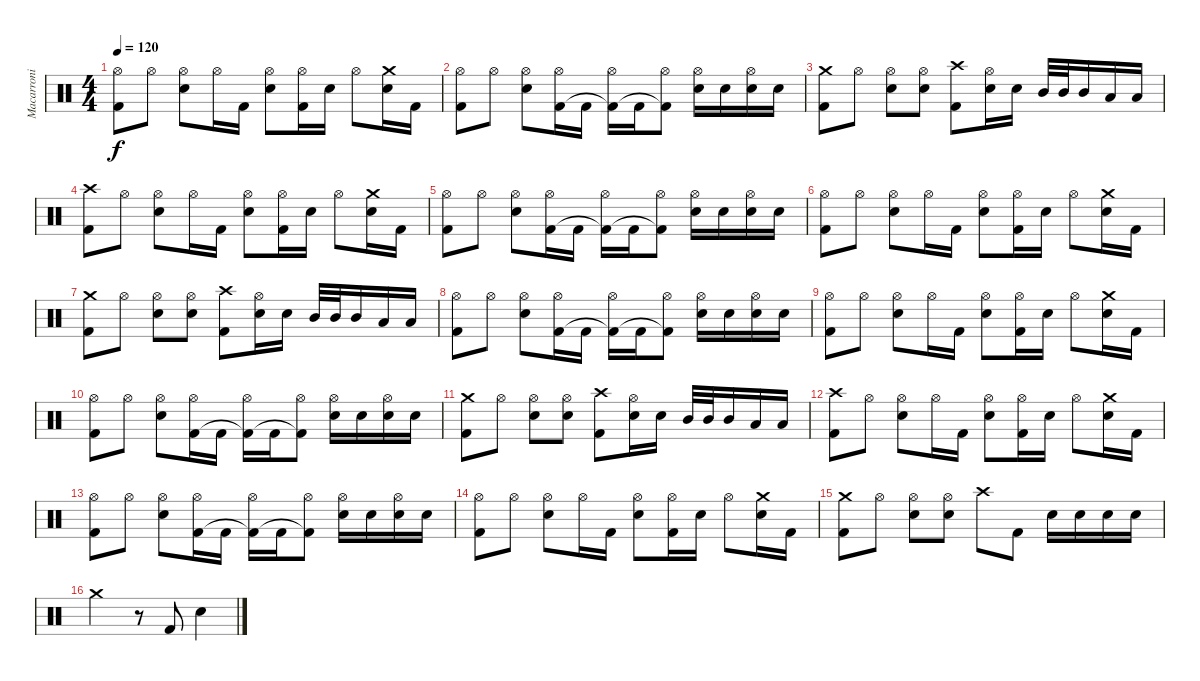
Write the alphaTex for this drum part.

\track ("Macarroni" "Macarroni") {instrument percussion}
\staff {score}
\articulation defaults
\ts (4 4)
\tempo 120
\clef neutral
\ks c
("Hi-Hat (open)" "Kick (hit) 2").8{dy f} "Hi-Hat (open)".8 ("Hi-Hat (open)" "Electric Snare (hit)").8 "Hi-Hat (open)".16 "Kick (hit) 2".16 ("Hi-Hat (open)" "Electric Snare (hit)").8 ("Hi-Hat (open)" "Kick (hit) 2").16 "Electric Snare (hit)".16 "Hi-Hat (open)".8 ("Crash medium (hit)" "Electric Snare (hit)").16 "Kick (hit) 2".16 |
("Hi-Hat (open)" "Kick (hit) 2").8 "Hi-Hat (open)".8 ("Hi-Hat (open)" "Electric Snare (hit)").8 ("Hi-Hat (open)" "Kick (hit) 2").16 "Kick (hit) 2".16 ("Hi-Hat (open)" "Kick (hit) 2"{t}).16 "Kick (hit) 2".16 ("Hi-Hat (open)" "Kick (hit) 2"{t}).8 ("Hi-Hat (open)" "Electric Snare (hit)").16 "Electric Snare (hit)".16 ("Hi-Hat (open)" "Electric Snare (hit)").16 "Electric Snare (hit)".16 |
("Crash medium (hit)" "Kick (hit) 2").8 "Hi-Hat (open)".8 ("Hi-Hat (open)" "Electric Snare (hit)").8 ("Hi-Hat (open)" "Electric Snare (hit)").8 ("Crash high (hit)" "Kick (hit) 2").8 ("Hi-Hat (open)" "Electric Snare (hit)").16 "Electric Snare (hit)".16 "Mid Tom (hit)".32 "Mid Tom (hit)".32 "Mid Tom (hit)".16 "Low Tom (hit)".16 "Low Tom (hit)".16 |
("Crash high (hit)" "Kick (hit) 2").8 "Hi-Hat (open)".8 ("Hi-Hat (open)" "Electric Snare (hit)").8 "Hi-Hat (open)".16 "Kick (hit) 2".16 ("Hi-Hat (open)" "Electric Snare (hit)").8 ("Hi-Hat (open)" "Kick (hit) 2").16 "Electric Snare (hit)".16 "Hi-Hat (open)".8 ("Crash medium (hit)" "Electric Snare (hit)").16 "Kick (hit) 2".16 |
("Hi-Hat (open)" "Kick (hit) 2").8 "Hi-Hat (open)".8 ("Hi-Hat (open)" "Electric Snare (hit)").8 ("Hi-Hat (open)" "Kick (hit) 2").16 "Kick (hit) 2".16 ("Hi-Hat (open)" "Kick (hit) 2"{t}).16 "Kick (hit) 2".16 ("Hi-Hat (open)" "Kick (hit) 2"{t}).8 ("Hi-Hat (open)" "Electric Snare (hit)").16 "Electric Snare (hit)".16 ("Hi-Hat (open)" "Electric Snare (hit)").16 "Electric Snare (hit)".16 |
("Hi-Hat (open)" "Kick (hit) 2").8 "Hi-Hat (open)".8 ("Hi-Hat (open)" "Electric Snare (hit)").8 "Hi-Hat (open)".16 "Kick (hit) 2".16 ("Hi-Hat (open)" "Electric Snare (hit)").8 ("Hi-Hat (open)" "Kick (hit) 2").16 "Electric Snare (hit)".16 "Hi-Hat (open)".8 ("Crash medium (hit)" "Electric Snare (hit)").16 "Kick (hit) 2".16 |
("Crash medium (hit)" "Kick (hit) 2").8 "Hi-Hat (open)".8 ("Hi-Hat (open)" "Electric Snare (hit)").8 ("Hi-Hat (open)" "Electric Snare (hit)").8 ("Crash high (hit)" "Kick (hit) 2").8 ("Hi-Hat (open)" "Electric Snare (hit)").16 "Electric Snare (hit)".16 "Mid Tom (hit)".32 "Mid Tom (hit)".32 "Mid Tom (hit)".16 "Low Tom (hit)".16 "Low Tom (hit)".16 |
("Hi-Hat (open)" "Kick (hit) 2").8 "Hi-Hat (open)".8 ("Hi-Hat (open)" "Electric Snare (hit)").8 ("Hi-Hat (open)" "Kick (hit) 2").16 "Kick (hit) 2".16 ("Hi-Hat (open)" "Kick (hit) 2"{t}).16 "Kick (hit) 2".16 ("Hi-Hat (open)" "Kick (hit) 2"{t}).8 ("Hi-Hat (open)" "Electric Snare (hit)").16 "Electric Snare (hit)".16 ("Hi-Hat (open)" "Electric Snare (hit)").16 "Electric Snare (hit)".16 |
("Hi-Hat (open)" "Kick (hit) 2").8 "Hi-Hat (open)".8 ("Hi-Hat (open)" "Electric Snare (hit)").8 "Hi-Hat (open)".16 "Kick (hit) 2".16 ("Hi-Hat (open)" "Electric Snare (hit)").8 ("Hi-Hat (open)" "Kick (hit) 2").16 "Electric Snare (hit)".16 "Hi-Hat (open)".8 ("Crash medium (hit)" "Electric Snare (hit)").16 "Kick (hit) 2".16 |
("Hi-Hat (open)" "Kick (hit) 2").8 "Hi-Hat (open)".8 ("Hi-Hat (open)" "Electric Snare (hit)").8 ("Hi-Hat (open)" "Kick (hit) 2").16 "Kick (hit) 2".16 ("Hi-Hat (open)" "Kick (hit) 2"{t}).16 "Kick (hit) 2".16 ("Hi-Hat (open)" "Kick (hit) 2"{t}).8 ("Hi-Hat (open)" "Electric Snare (hit)").16 "Electric Snare (hit)".16 ("Hi-Hat (open)" "Electric Snare (hit)").16 "Electric Snare (hit)".16 |
("Crash medium (hit)" "Kick (hit) 2").8 "Hi-Hat (open)".8 ("Hi-Hat (open)" "Electric Snare (hit)").8 ("Hi-Hat (open)" "Electric Snare (hit)").8 ("Crash high (hit)" "Kick (hit) 2").8 ("Hi-Hat (open)" "Electric Snare (hit)").16 "Electric Snare (hit)".16 "Mid Tom (hit)".32 "Mid Tom (hit)".32 "Mid Tom (hit)".16 "Low Tom (hit)".16 "Low Tom (hit)".16 |
("Crash high (hit)" "Kick (hit) 2").8 "Hi-Hat (open)".8 ("Hi-Hat (open)" "Electric Snare (hit)").8 "Hi-Hat (open)".16 "Kick (hit) 2".16 ("Hi-Hat (open)" "Electric Snare (hit)").8 ("Hi-Hat (open)" "Kick (hit) 2").16 "Electric Snare (hit)".16 "Hi-Hat (open)".8 ("Crash medium (hit)" "Electric Snare (hit)").16 "Kick (hit) 2".16 |
("Hi-Hat (open)" "Kick (hit) 2").8 "Hi-Hat (open)".8 ("Hi-Hat (open)" "Electric Snare (hit)").8 ("Hi-Hat (open)" "Kick (hit) 2").16 "Kick (hit) 2".16 ("Hi-Hat (open)" "Kick (hit) 2"{t}).16 "Kick (hit) 2".16 ("Hi-Hat (open)" "Kick (hit) 2"{t}).8 ("Hi-Hat (open)" "Electric Snare (hit)").16 "Electric Snare (hit)".16 ("Hi-Hat (open)" "Electric Snare (hit)").16 "Electric Snare (hit)".16 |
("Hi-Hat (open)" "Kick (hit) 2").8 "Hi-Hat (open)".8 ("Hi-Hat (open)" "Electric Snare (hit)").8 "Hi-Hat (open)".16 "Kick (hit) 2".16 ("Hi-Hat (open)" "Electric Snare (hit)").8 ("Hi-Hat (open)" "Kick (hit) 2").16 "Electric Snare (hit)".16 "Hi-Hat (open)".8 ("Crash medium (hit)" "Electric Snare (hit)").16 "Kick (hit) 2".16 |
("Crash medium (hit)" "Kick (hit) 2").8 "Hi-Hat (open)".8 ("Hi-Hat (open)" "Electric Snare (hit)").8 ("Hi-Hat (open)" "Electric Snare (hit)").8 "Crash high (hit)".8 "Kick (hit) 2".8 "Electric Snare (hit)".16 "Electric Snare (hit)".16 "Electric Snare (hit)".16 "Electric Snare (hit)".16 |
"Crash medium (hit)".2 r.8 "Kick (hit) 2".8 "Electric Snare (hit)".4
